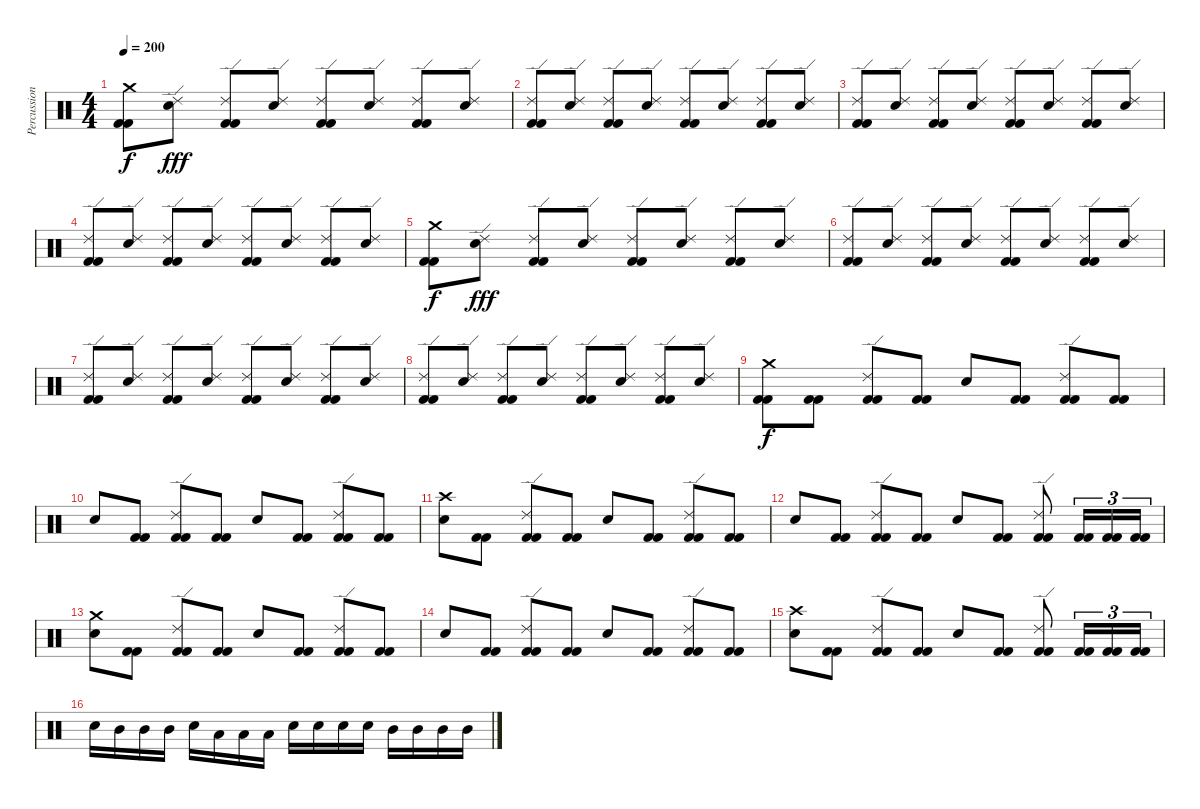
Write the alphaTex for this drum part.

\track ("Percussion" "Percussion") {instrument percussion}
\staff {score}
\articulation defaults
\ts (4 4)
\tempo 200
\clef neutral
\ks c
("Crash medium (hit)" "Kick (hit) 2" "Kick (hit) 2").8{dy f} ("Electric Snare (hit)" "Ride (edge) 2").8{dy fff} ("Kick (hit) 2" "Kick (hit) 2" "Ride (edge) 2").8 ("Electric Snare (hit)" "Ride (edge) 2").8 ("Kick (hit) 2" "Kick (hit) 2" "Ride (edge) 2").8 ("Electric Snare (hit)" "Ride (edge) 2").8 ("Kick (hit) 2" "Kick (hit) 2" "Ride (edge) 2").8 ("Electric Snare (hit)" "Ride (edge) 2").8 |
("Kick (hit) 2" "Kick (hit) 2" "Ride (edge) 2").8 ("Electric Snare (hit)" "Ride (edge) 2").8 ("Kick (hit) 2" "Kick (hit) 2" "Ride (edge) 2").8 ("Electric Snare (hit)" "Ride (edge) 2").8 ("Kick (hit) 2" "Kick (hit) 2" "Ride (edge) 2").8 ("Electric Snare (hit)" "Ride (edge) 2").8 ("Kick (hit) 2" "Kick (hit) 2" "Ride (edge) 2").8 ("Electric Snare (hit)" "Ride (edge) 2").8 |
("Kick (hit) 2" "Kick (hit) 2" "Ride (edge) 2").8 ("Electric Snare (hit)" "Ride (edge) 2").8 ("Kick (hit) 2" "Kick (hit) 2" "Ride (edge) 2").8 ("Electric Snare (hit)" "Ride (edge) 2").8 ("Kick (hit) 2" "Kick (hit) 2" "Ride (edge) 2").8 ("Electric Snare (hit)" "Ride (edge) 2").8 ("Kick (hit) 2" "Kick (hit) 2" "Ride (edge) 2").8 ("Electric Snare (hit)" "Ride (edge) 2").8 |
("Kick (hit) 2" "Kick (hit) 2" "Ride (edge) 2").8 ("Electric Snare (hit)" "Ride (edge) 2").8 ("Kick (hit) 2" "Kick (hit) 2" "Ride (edge) 2").8 ("Electric Snare (hit)" "Ride (edge) 2").8 ("Kick (hit) 2" "Kick (hit) 2" "Ride (edge) 2").8 ("Electric Snare (hit)" "Ride (edge) 2").8 ("Kick (hit) 2" "Kick (hit) 2" "Ride (edge) 2").8 ("Electric Snare (hit)" "Ride (edge) 2").8 |
("Crash medium (hit)" "Kick (hit) 2" "Kick (hit) 2").8{dy f} ("Electric Snare (hit)" "Ride (edge) 2").8{dy fff} ("Kick (hit) 2" "Kick (hit) 2" "Ride (edge) 2").8 ("Electric Snare (hit)" "Ride (edge) 2").8 ("Kick (hit) 2" "Kick (hit) 2" "Ride (edge) 2").8 ("Electric Snare (hit)" "Ride (edge) 2").8 ("Kick (hit) 2" "Kick (hit) 2" "Ride (edge) 2").8 ("Electric Snare (hit)" "Ride (edge) 2").8 |
("Kick (hit) 2" "Kick (hit) 2" "Ride (edge) 2").8 ("Electric Snare (hit)" "Ride (edge) 2").8 ("Kick (hit) 2" "Kick (hit) 2" "Ride (edge) 2").8 ("Electric Snare (hit)" "Ride (edge) 2").8 ("Kick (hit) 2" "Kick (hit) 2" "Ride (edge) 2").8 ("Electric Snare (hit)" "Ride (edge) 2").8 ("Kick (hit) 2" "Kick (hit) 2" "Ride (edge) 2").8 ("Electric Snare (hit)" "Ride (edge) 2").8 |
("Kick (hit) 2" "Kick (hit) 2" "Ride (edge) 2").8 ("Electric Snare (hit)" "Ride (edge) 2").8 ("Kick (hit) 2" "Kick (hit) 2" "Ride (edge) 2").8 ("Electric Snare (hit)" "Ride (edge) 2").8 ("Kick (hit) 2" "Kick (hit) 2" "Ride (edge) 2").8 ("Electric Snare (hit)" "Ride (edge) 2").8 ("Kick (hit) 2" "Kick (hit) 2" "Ride (edge) 2").8 ("Electric Snare (hit)" "Ride (edge) 2").8 |
("Kick (hit) 2" "Kick (hit) 2" "Ride (edge) 2").8 ("Electric Snare (hit)" "Ride (edge) 2").8 ("Kick (hit) 2" "Kick (hit) 2" "Ride (edge) 2").8 ("Electric Snare (hit)" "Ride (edge) 2").8 ("Kick (hit) 2" "Kick (hit) 2" "Ride (edge) 2").8 ("Electric Snare (hit)" "Ride (edge) 2").8 ("Kick (hit) 2" "Kick (hit) 2" "Ride (edge) 2").8 ("Electric Snare (hit)" "Ride (edge) 2").8 |
("Crash medium (hit)" "Kick (hit) 2" "Kick (hit) 2").8{dy f} ("Kick (hit) 2" "Kick (hit) 2").8 ("Kick (hit) 2" "Kick (hit) 2" "Ride (edge) 2").8 ("Kick (hit) 2" "Kick (hit) 2").8 "Electric Snare (hit)".8 ("Kick (hit) 2" "Kick (hit) 2").8 ("Kick (hit) 2" "Kick (hit) 2" "Ride (edge) 2").8 ("Kick (hit) 2" "Kick (hit) 2").8 |
"Electric Snare (hit)".8 ("Kick (hit) 2" "Kick (hit) 2").8 ("Kick (hit) 2" "Kick (hit) 2" "Ride (edge) 2").8 ("Kick (hit) 2" "Kick (hit) 2").8 "Electric Snare (hit)".8 ("Kick (hit) 2" "Kick (hit) 2").8 ("Kick (hit) 2" "Kick (hit) 2" "Ride (edge) 2").8 ("Kick (hit) 2" "Kick (hit) 2").8 |
("Electric Snare (hit)" "Crash high (hit)").8 ("Kick (hit) 2" "Kick (hit) 2").8 ("Kick (hit) 2" "Kick (hit) 2" "Ride (edge) 2").8 ("Kick (hit) 2" "Kick (hit) 2").8 "Electric Snare (hit)".8 ("Kick (hit) 2" "Kick (hit) 2").8 ("Kick (hit) 2" "Kick (hit) 2" "Ride (edge) 2").8 ("Kick (hit) 2" "Kick (hit) 2").8 |
"Electric Snare (hit)".8 ("Kick (hit) 2" "Kick (hit) 2").8 ("Kick (hit) 2" "Kick (hit) 2" "Ride (edge) 2").8 ("Kick (hit) 2" "Kick (hit) 2").8 "Electric Snare (hit)".8 ("Kick (hit) 2" "Kick (hit) 2").8 ("Kick (hit) 2" "Kick (hit) 2" "Ride (edge) 2").8 ("Kick (hit) 2" "Kick (hit) 2").16{tu (3 2)} ("Kick (hit) 2" "Kick (hit) 2").16{tu (3 2)} ("Kick (hit) 2" "Kick (hit) 2").16{tu (3 2)} |
("Electric Snare (hit)" "Crash medium (hit)").8 ("Kick (hit) 2" "Kick (hit) 2").8 ("Kick (hit) 2" "Kick (hit) 2" "Ride (edge) 2").8 ("Kick (hit) 2" "Kick (hit) 2").8 "Electric Snare (hit)".8 ("Kick (hit) 2" "Kick (hit) 2").8 ("Kick (hit) 2" "Kick (hit) 2" "Ride (edge) 2").8 ("Kick (hit) 2" "Kick (hit) 2").8 |
"Electric Snare (hit)".8 ("Kick (hit) 2" "Kick (hit) 2").8 ("Kick (hit) 2" "Kick (hit) 2" "Ride (edge) 2").8 ("Kick (hit) 2" "Kick (hit) 2").8 "Electric Snare (hit)".8 ("Kick (hit) 2" "Kick (hit) 2").8 ("Kick (hit) 2" "Kick (hit) 2" "Ride (edge) 2").8 ("Kick (hit) 2" "Kick (hit) 2").8 |
("Electric Snare (hit)" "Crash high (hit)").8 ("Kick (hit) 2" "Kick (hit) 2").8 ("Kick (hit) 2" "Kick (hit) 2" "Ride (edge) 2").8 ("Kick (hit) 2" "Kick (hit) 2").8 "Electric Snare (hit)".8 ("Kick (hit) 2" "Kick (hit) 2").8 ("Kick (hit) 2" "Kick (hit) 2" "Ride (edge) 2").8 ("Kick (hit) 2" "Kick (hit) 2").16{tu (3 2)} ("Kick (hit) 2" "Kick (hit) 2").16{tu (3 2)} ("Kick (hit) 2" "Kick (hit) 2").16{tu (3 2)} |
"Electric Snare (hit)".16 "Mid Tom (hit)".16 "Mid Tom (hit)".16 "Mid Tom (hit)".16 "Electric Snare (hit)".16 "Low Tom (hit)".16 "Low Tom (hit)".16 "Low Tom (hit)".16 "Electric Snare (hit)".16 "Electric Snare (hit)".16 "Electric Snare (hit)".16 "Electric Snare (hit)".16 "Mid Tom (hit)".16 "Mid Tom (hit)".16 "Mid Tom (hit)".16 "Mid Tom (hit)".16
